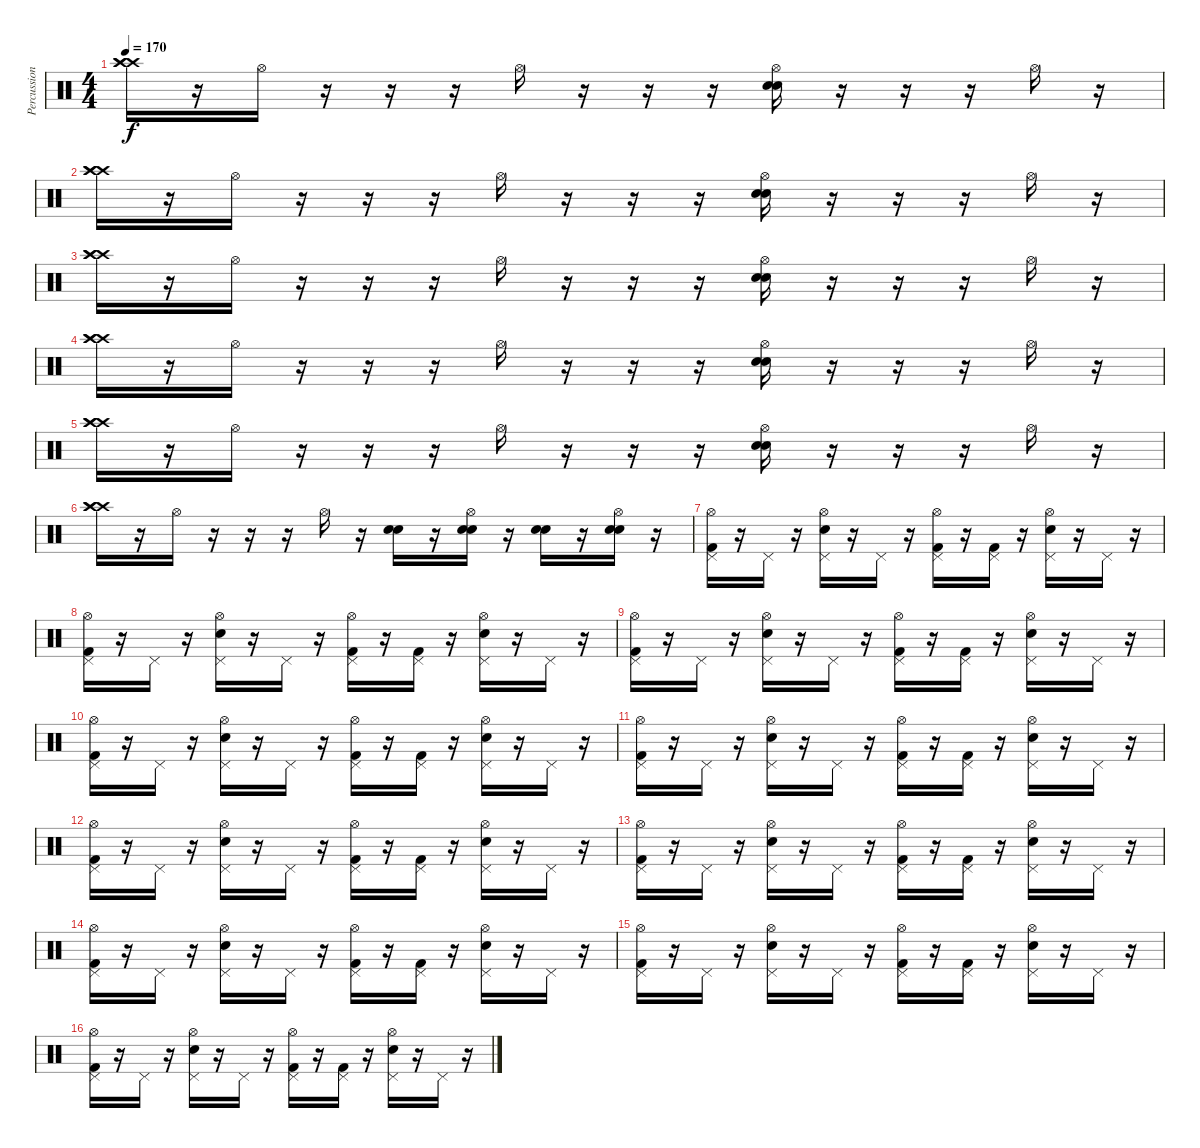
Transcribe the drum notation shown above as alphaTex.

\track ("Percussion" "Percussion") {instrument percussion}
\staff {score}
\articulation defaults
\ts (4 4)
\tempo 170
\clef neutral
\ks c
("Crash high (hit)" "Crash high (hit)" "Crash high (hit)").16{dy f} r.16 "Hi-Hat (open)".16 r.16 r.16 r.16 "Hi-Hat (open)".16 r.16 r.16 r.16 ("Hi-Hat (open)" "Snare (hit) 2" "Snare (hit) 2").16 r.16 r.16 r.16 "Hi-Hat (open)".16 r.16 |
("Crash high (hit)" "Crash high (hit)" "Crash high (hit)").16 r.16 "Hi-Hat (open)".16 r.16 r.16 r.16 "Hi-Hat (open)".16 r.16 r.16 r.16 ("Hi-Hat (open)" "Snare (hit) 2" "Snare (hit) 2").16 r.16 r.16 r.16 "Hi-Hat (open)".16 r.16 |
("Crash high (hit)" "Crash high (hit)" "Crash high (hit)").16 r.16 "Hi-Hat (open)".16 r.16 r.16 r.16 "Hi-Hat (open)".16 r.16 r.16 r.16 ("Hi-Hat (open)" "Snare (hit) 2" "Snare (hit) 2").16 r.16 r.16 r.16 "Hi-Hat (open)".16 r.16 |
("Crash high (hit)" "Crash high (hit)" "Crash high (hit)").16 r.16 "Hi-Hat (open)".16 r.16 r.16 r.16 "Hi-Hat (open)".16 r.16 r.16 r.16 ("Hi-Hat (open)" "Snare (hit) 2" "Snare (hit) 2").16 r.16 r.16 r.16 "Hi-Hat (open)".16 r.16 |
("Crash high (hit)" "Crash high (hit)" "Crash high (hit)").16 r.16 "Hi-Hat (open)".16 r.16 r.16 r.16 "Hi-Hat (open)".16 r.16 r.16 r.16 ("Hi-Hat (open)" "Snare (hit) 2" "Snare (hit) 2").16 r.16 r.16 r.16 "Hi-Hat (open)".16 r.16 |
("Crash high (hit)" "Crash high (hit)" "Crash high (hit)").16 r.16 "Hi-Hat (open)".16 r.16 r.16 r.16 "Hi-Hat (open)".16 r.16 ("Snare (hit) 2" "Snare (hit) 2").16 r.16 ("Hi-Hat (open)" "Snare (hit) 2" "Snare (hit) 2").16 r.16 ("Snare (hit) 2" "Snare (hit) 2").16 r.16 ("Hi-Hat (open)" "Snare (hit) 2" "Snare (hit) 2").16 r.16 |
("Pedal Hi-Hat (hit)" "Hi-Hat (open)" "Kick (hit) 2").16 r.16 "Pedal Hi-Hat (hit)".16 r.16 ("Pedal Hi-Hat (hit)" "Hi-Hat (open)" "Snare (hit) 2").16 r.16 "Pedal Hi-Hat (hit)".16 r.16 ("Pedal Hi-Hat (hit)" "Hi-Hat (open)" "Kick (hit) 2").16 r.16 ("Pedal Hi-Hat (hit)" "Kick (hit) 2").16 r.16 ("Pedal Hi-Hat (hit)" "Hi-Hat (open)" "Snare (hit) 2").16 r.16 "Pedal Hi-Hat (hit)".16 r.16 |
("Pedal Hi-Hat (hit)" "Hi-Hat (open)" "Kick (hit) 2").16 r.16 "Pedal Hi-Hat (hit)".16 r.16 ("Pedal Hi-Hat (hit)" "Hi-Hat (open)" "Snare (hit) 2").16 r.16 "Pedal Hi-Hat (hit)".16 r.16 ("Pedal Hi-Hat (hit)" "Hi-Hat (open)" "Kick (hit) 2").16 r.16 ("Pedal Hi-Hat (hit)" "Kick (hit) 2").16 r.16 ("Pedal Hi-Hat (hit)" "Hi-Hat (open)" "Snare (hit) 2").16 r.16 "Pedal Hi-Hat (hit)".16 r.16 |
("Pedal Hi-Hat (hit)" "Hi-Hat (open)" "Kick (hit) 2").16 r.16 "Pedal Hi-Hat (hit)".16 r.16 ("Pedal Hi-Hat (hit)" "Hi-Hat (open)" "Snare (hit) 2").16 r.16 "Pedal Hi-Hat (hit)".16 r.16 ("Pedal Hi-Hat (hit)" "Hi-Hat (open)" "Kick (hit) 2").16 r.16 ("Pedal Hi-Hat (hit)" "Kick (hit) 2").16 r.16 ("Pedal Hi-Hat (hit)" "Hi-Hat (open)" "Snare (hit) 2").16 r.16 "Pedal Hi-Hat (hit)".16 r.16 |
("Pedal Hi-Hat (hit)" "Hi-Hat (open)" "Kick (hit) 2").16 r.16 "Pedal Hi-Hat (hit)".16 r.16 ("Pedal Hi-Hat (hit)" "Hi-Hat (open)" "Snare (hit) 2").16 r.16 "Pedal Hi-Hat (hit)".16 r.16 ("Pedal Hi-Hat (hit)" "Hi-Hat (open)" "Kick (hit) 2").16 r.16 ("Pedal Hi-Hat (hit)" "Kick (hit) 2").16 r.16 ("Pedal Hi-Hat (hit)" "Hi-Hat (open)" "Snare (hit) 2").16 r.16 "Pedal Hi-Hat (hit)".16 r.16 |
("Pedal Hi-Hat (hit)" "Hi-Hat (open)" "Kick (hit) 2").16 r.16 "Pedal Hi-Hat (hit)".16 r.16 ("Pedal Hi-Hat (hit)" "Hi-Hat (open)" "Snare (hit) 2").16 r.16 "Pedal Hi-Hat (hit)".16 r.16 ("Pedal Hi-Hat (hit)" "Hi-Hat (open)" "Kick (hit) 2").16 r.16 ("Pedal Hi-Hat (hit)" "Kick (hit) 2").16 r.16 ("Pedal Hi-Hat (hit)" "Hi-Hat (open)" "Snare (hit) 2").16 r.16 "Pedal Hi-Hat (hit)".16 r.16 |
("Pedal Hi-Hat (hit)" "Hi-Hat (open)" "Kick (hit) 2").16 r.16 "Pedal Hi-Hat (hit)".16 r.16 ("Pedal Hi-Hat (hit)" "Hi-Hat (open)" "Snare (hit) 2").16 r.16 "Pedal Hi-Hat (hit)".16 r.16 ("Pedal Hi-Hat (hit)" "Hi-Hat (open)" "Kick (hit) 2").16 r.16 ("Pedal Hi-Hat (hit)" "Kick (hit) 2").16 r.16 ("Pedal Hi-Hat (hit)" "Hi-Hat (open)" "Snare (hit) 2").16 r.16 "Pedal Hi-Hat (hit)".16 r.16 |
("Pedal Hi-Hat (hit)" "Hi-Hat (open)" "Kick (hit) 2").16 r.16 "Pedal Hi-Hat (hit)".16 r.16 ("Pedal Hi-Hat (hit)" "Hi-Hat (open)" "Snare (hit) 2").16 r.16 "Pedal Hi-Hat (hit)".16 r.16 ("Pedal Hi-Hat (hit)" "Hi-Hat (open)" "Kick (hit) 2").16 r.16 ("Pedal Hi-Hat (hit)" "Kick (hit) 2").16 r.16 ("Pedal Hi-Hat (hit)" "Hi-Hat (open)" "Snare (hit) 2").16 r.16 "Pedal Hi-Hat (hit)".16 r.16 |
("Pedal Hi-Hat (hit)" "Hi-Hat (open)" "Kick (hit) 2").16 r.16 "Pedal Hi-Hat (hit)".16 r.16 ("Pedal Hi-Hat (hit)" "Hi-Hat (open)" "Snare (hit) 2").16 r.16 "Pedal Hi-Hat (hit)".16 r.16 ("Pedal Hi-Hat (hit)" "Hi-Hat (open)" "Kick (hit) 2").16 r.16 ("Pedal Hi-Hat (hit)" "Kick (hit) 2").16 r.16 ("Pedal Hi-Hat (hit)" "Hi-Hat (open)" "Snare (hit) 2").16 r.16 "Pedal Hi-Hat (hit)".16 r.16 |
("Pedal Hi-Hat (hit)" "Hi-Hat (open)" "Kick (hit) 2").16 r.16 "Pedal Hi-Hat (hit)".16 r.16 ("Pedal Hi-Hat (hit)" "Hi-Hat (open)" "Snare (hit) 2").16 r.16 "Pedal Hi-Hat (hit)".16 r.16 ("Pedal Hi-Hat (hit)" "Hi-Hat (open)" "Kick (hit) 2").16 r.16 ("Pedal Hi-Hat (hit)" "Kick (hit) 2").16 r.16 ("Pedal Hi-Hat (hit)" "Hi-Hat (open)" "Snare (hit) 2").16 r.16 "Pedal Hi-Hat (hit)".16 r.16 |
("Pedal Hi-Hat (hit)" "Hi-Hat (open)" "Kick (hit) 2").16 r.16 "Pedal Hi-Hat (hit)".16 r.16 ("Pedal Hi-Hat (hit)" "Hi-Hat (open)" "Snare (hit) 2").16 r.16 "Pedal Hi-Hat (hit)".16 r.16 ("Pedal Hi-Hat (hit)" "Hi-Hat (open)" "Kick (hit) 2").16 r.16 ("Pedal Hi-Hat (hit)" "Kick (hit) 2").16 r.16 ("Pedal Hi-Hat (hit)" "Hi-Hat (open)" "Snare (hit) 2").16 r.16 "Pedal Hi-Hat (hit)".16 r.16
